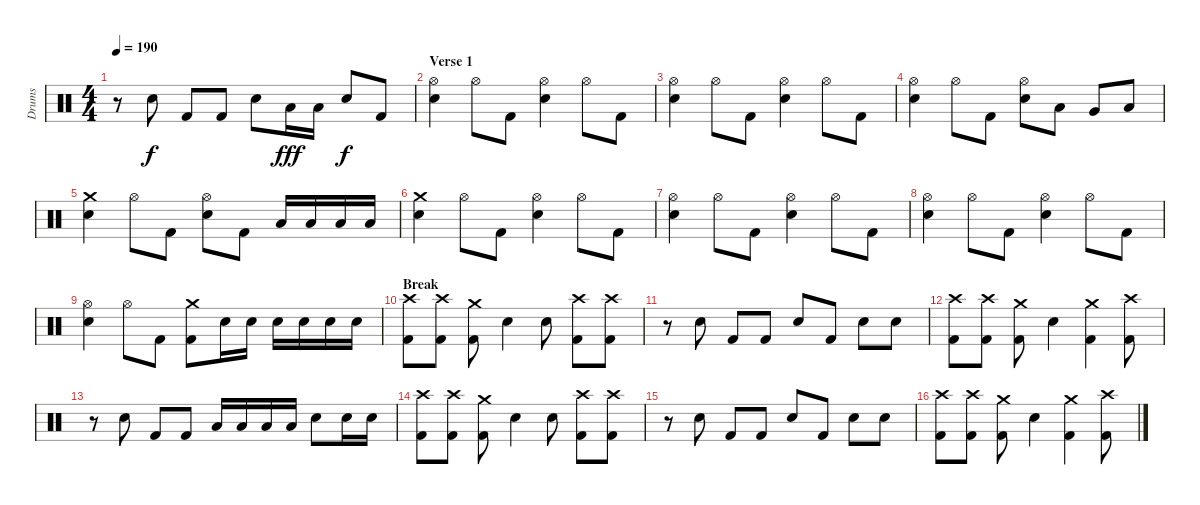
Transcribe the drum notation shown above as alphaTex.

\track ("Drums" "Drums") {instrument percussion}
\staff {score}
\articulation defaults
\ts (4 4)
\tempo 190
\clef neutral
\ks c
r.8{dy f} "Electric Snare (hit)".8 "Kick (hit) 2".8 "Kick (hit) 2".8 "Electric Snare (hit)".8 "Low Floor Tom (hit)".16{dy fff} "Low Floor Tom (hit)".16 "Electric Snare (hit)".8{dy f} "Kick (hit) 2".8 |
\section ("" "Verse 1")
("Hi-Hat (open)" "Electric Snare (hit)").4 "Hi-Hat (open)".8 "Kick (hit) 2".8 ("Hi-Hat (open)" "Electric Snare (hit)").4 "Hi-Hat (open)".8 "Kick (hit) 2".8 |
("Hi-Hat (open)" "Electric Snare (hit)").4 "Hi-Hat (open)".8 "Kick (hit) 2".8 ("Hi-Hat (open)" "Electric Snare (hit)").4 "Hi-Hat (open)".8 "Kick (hit) 2".8 |
("Hi-Hat (open)" "Electric Snare (hit)").4 "Hi-Hat (open)".8 "Kick (hit) 2".8 ("Hi-Hat (open)" "Electric Snare (hit)").8 "Low Tom (hit)".8 "Very Low Tom (hit)".8 "Low Floor Tom (hit)".8 |
("Crash medium (hit)" "Electric Snare (hit)").4 "Hi-Hat (open)".8 "Kick (hit) 2".8 ("Hi-Hat (open)" "Electric Snare (hit)").8 "Kick (hit) 2".8 "Low Floor Tom (hit)".16 "Low Floor Tom (hit)".16 "Low Floor Tom (hit)".16 "Low Floor Tom (hit)".16 |
("Crash medium (hit)" "Electric Snare (hit)").4 "Hi-Hat (open)".8 "Kick (hit) 2".8 ("Hi-Hat (open)" "Electric Snare (hit)").4 "Hi-Hat (open)".8 "Kick (hit) 2".8 |
("Hi-Hat (open)" "Electric Snare (hit)").4 "Hi-Hat (open)".8 "Kick (hit) 2".8 ("Hi-Hat (open)" "Electric Snare (hit)").4 "Hi-Hat (open)".8 "Kick (hit) 2".8 |
("Hi-Hat (open)" "Electric Snare (hit)").4 "Hi-Hat (open)".8 "Kick (hit) 2".8 ("Hi-Hat (open)" "Electric Snare (hit)").4 "Hi-Hat (open)".8 "Kick (hit) 2".8 |
("Hi-Hat (open)" "Electric Snare (hit)").4 "Hi-Hat (open)".8 "Kick (hit) 2".8 ("Crash medium (hit)" "Kick (hit) 2").8 "Electric Snare (hit)".16 "Electric Snare (hit)".16 "Electric Snare (hit)".16 "Electric Snare (hit)".16 "Electric Snare (hit)".16 "Electric Snare (hit)".16 |
\section ("" "Break")
("Crash high (hit)" "Kick (hit) 2").8 ("Crash high (hit)" "Kick (hit) 2").8 ("Crash medium (hit)" "Kick (hit) 2").8 "Electric Snare (hit)".4 "Electric Snare (hit)".8 ("Crash high (hit)" "Kick (hit) 2").8 ("Crash high (hit)" "Kick (hit) 2").8 |
r.8 "Electric Snare (hit)".8 "Kick (hit) 2".8 "Kick (hit) 2".8 "Electric Snare (hit)".8 "Kick (hit) 2".8 "Electric Snare (hit)".8 "Electric Snare (hit)".8 |
("Crash high (hit)" "Kick (hit) 2").8 ("Crash high (hit)" "Kick (hit) 2").8 ("Crash medium (hit)" "Kick (hit) 2").8 "Electric Snare (hit)".4 ("Crash medium (hit)" "Kick (hit) 2").4 ("Crash high (hit)" "Kick (hit) 2").8 |
r.8 "Electric Snare (hit)".8 "Kick (hit) 2".8 "Kick (hit) 2".8 "Low Floor Tom (hit)".16 "Low Floor Tom (hit)".16 "Low Floor Tom (hit)".16 "Low Floor Tom (hit)".16 "Electric Snare (hit)".8 "Electric Snare (hit)".16 "Electric Snare (hit)".16 |
("Crash high (hit)" "Kick (hit) 2").8 ("Crash high (hit)" "Kick (hit) 2").8 ("Crash medium (hit)" "Kick (hit) 2").8 "Electric Snare (hit)".4 "Electric Snare (hit)".8 ("Crash high (hit)" "Kick (hit) 2").8 ("Crash high (hit)" "Kick (hit) 2").8 |
r.8 "Electric Snare (hit)".8 "Kick (hit) 2".8 "Kick (hit) 2".8 "Electric Snare (hit)".8 "Kick (hit) 2".8 "Electric Snare (hit)".8 "Electric Snare (hit)".8 |
("Crash high (hit)" "Kick (hit) 2").8 ("Crash high (hit)" "Kick (hit) 2").8 ("Crash medium (hit)" "Kick (hit) 2").8 "Electric Snare (hit)".4 ("Crash medium (hit)" "Kick (hit) 2").4 ("Crash high (hit)" "Kick (hit) 2").8
